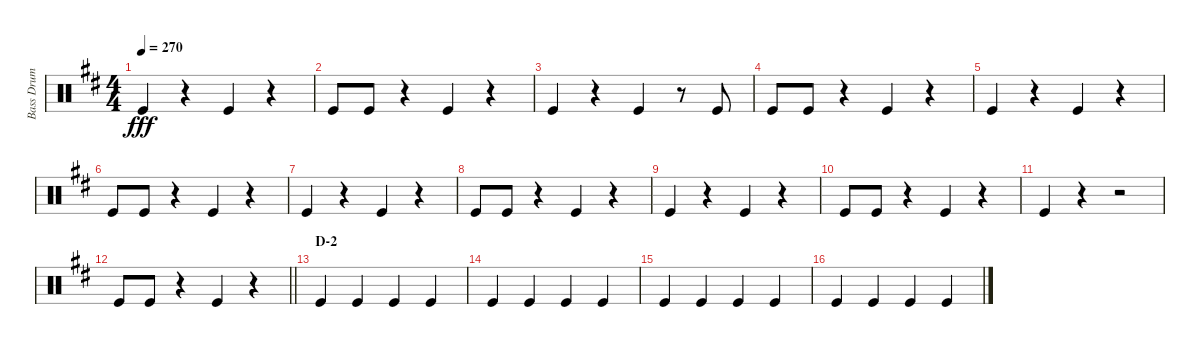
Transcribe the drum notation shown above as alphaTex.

\track ("Bass Drum" "Bass Drum") {instrument percussion}
\staff {score}
\articulation defaults
\ts (4 4)
\tempo 270
\clef neutral
\ks d "Kick (hit)".4{dy fff}
r.4 "Kick (hit)".4 r.4 |
"Kick (hit)".8 "Kick (hit)".8 r.4 "Kick (hit)".4 r.4 |
"Kick (hit)".4 r.4 "Kick (hit)".4 r.8 "Kick (hit)".8 |
"Kick (hit)".8 "Kick (hit)".8 r.4 "Kick (hit)".4 r.4 |
"Kick (hit)".4 r.4 "Kick (hit)".4 r.4 |
"Kick (hit)".8 "Kick (hit)".8 r.4 "Kick (hit)".4 r.4 |
"Kick (hit)".4 r.4 "Kick (hit)".4 r.4 |
"Kick (hit)".8 "Kick (hit)".8 r.4 "Kick (hit)".4 r.4 |
"Kick (hit)".4 r.4 "Kick (hit)".4 r.4 |
"Kick (hit)".8 "Kick (hit)".8 r.4 "Kick (hit)".4 r.4 |
"Kick (hit)".4 r.4 r.2 |
\barLineRight lightlight "Kick (hit)".8 "Kick (hit)".8
r.4 "Kick (hit)".4 r.4 |
\section ("" "D-2")
"Kick (hit)".4 "Kick (hit)".4 "Kick (hit)".4 "Kick (hit)".4 |
"Kick (hit)".4 "Kick (hit)".4 "Kick (hit)".4 "Kick (hit)".4 |
"Kick (hit)".4 "Kick (hit)".4 "Kick (hit)".4 "Kick (hit)".4 |
"Kick (hit)".4 "Kick (hit)".4 "Kick (hit)".4 "Kick (hit)".4
